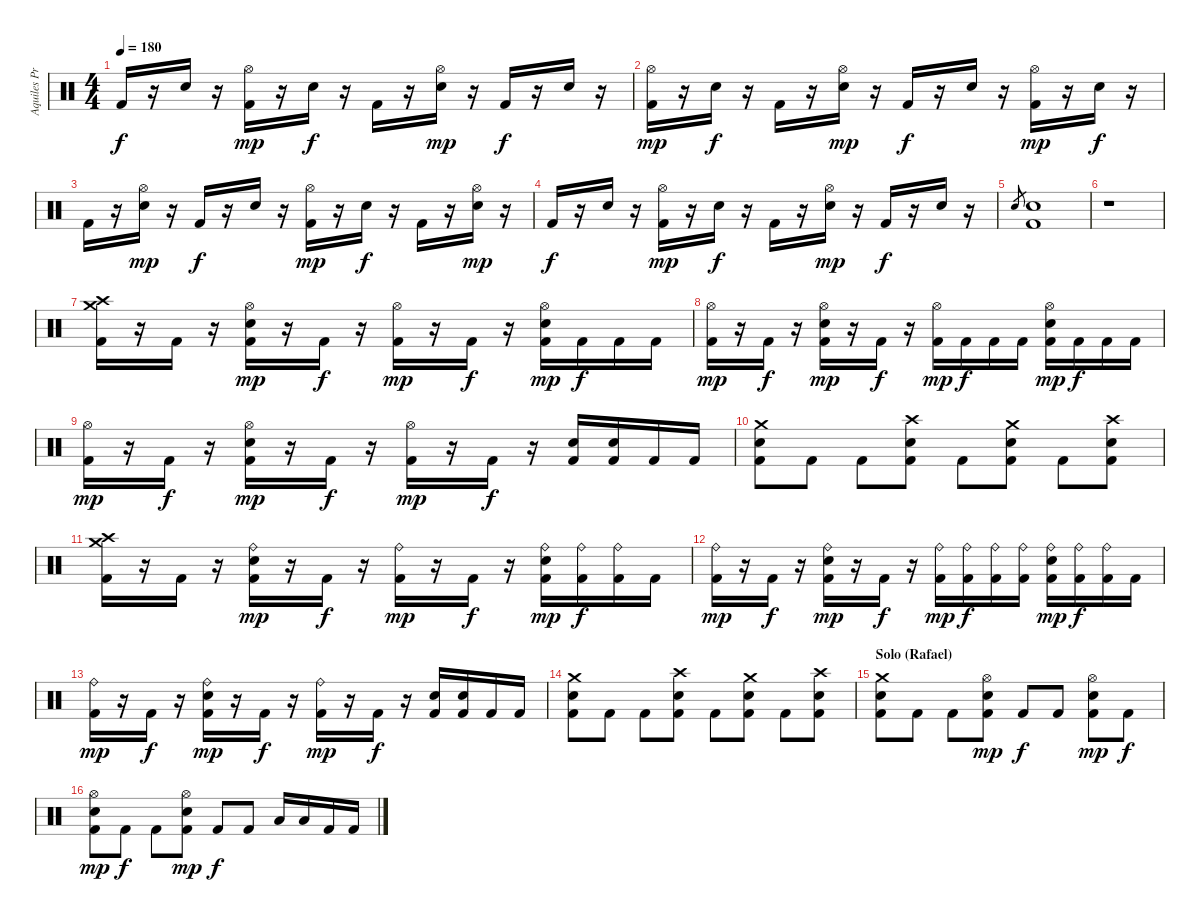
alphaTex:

\track ("Aquiles Priester" "Aquiles Pr") {instrument percussion}
\staff {score}
\articulation defaults
\ts (4 4)
\tempo 180
\clef neutral
\ks c "Kick (hit) 2".16{dy f}
r.16 "Snare (hit) 2".16 r.16 ("Hi-Hat (open)" "Kick (hit) 2").16{dy mp} r.16 "Snare (hit) 2".16{dy f} r.16 "Kick (hit) 2".16 r.16 ("Hi-Hat (open)" "Snare (hit) 2").16{dy mp} r.16 "Kick (hit) 2".16{dy f} r.16 "Snare (hit) 2".16 r.16 |
("Hi-Hat (open)" "Kick (hit) 2").16{dy mp} r.16 "Snare (hit) 2".16{dy f} r.16 "Kick (hit) 2".16 r.16 ("Hi-Hat (open)" "Snare (hit) 2").16{dy mp} r.16 "Kick (hit) 2".16{dy f} r.16 "Snare (hit) 2".16 r.16 ("Hi-Hat (open)" "Kick (hit) 2").16{dy mp} r.16 "Snare (hit) 2".16{dy f} r.16 |
"Kick (hit) 2".16 r.16 ("Hi-Hat (open)" "Snare (hit) 2").16{dy mp} r.16 "Kick (hit) 2".16{dy f} r.16 "Snare (hit) 2".16 r.16 ("Hi-Hat (open)" "Kick (hit) 2").16{dy mp} r.16 "Snare (hit) 2".16{dy f} r.16 "Kick (hit) 2".16 r.16 ("Hi-Hat (open)" "Snare (hit) 2").16{dy mp} r.16 |
"Kick (hit) 2".16{dy f} r.16 "Snare (hit) 2".16 r.16 ("Hi-Hat (open)" "Kick (hit) 2").16{dy mp} r.16 "Snare (hit) 2".16{dy f} r.16 "Kick (hit) 2".16 r.16 ("Hi-Hat (open)" "Snare (hit) 2").16{dy mp} r.16 "Kick (hit) 2".16{dy f} r.16 "Snare (hit) 2".16 r.16 |
"Snare (hit) 2".8{gr} ("Snare (hit) 2" "Kick (hit) 2").1 |
r.1 |
("Crash high (hit)" "Crash medium (hit)" "Kick (hit) 2").16 r.16 "Kick (hit) 2".16 r.16 ("Hi-Hat (open)" "Snare (hit) 2" "Kick (hit) 2").16{dy mp} r.16 "Kick (hit) 2".16{dy f} r.16 ("Hi-Hat (open)" "Kick (hit) 2").16{dy mp} r.16 "Kick (hit) 2".16{dy f} r.16 ("Hi-Hat (open)" "Snare (hit) 2" "Kick (hit) 2").16{dy mp} "Kick (hit) 2".16{dy f} "Kick (hit) 2".16 "Kick (hit) 2".16 |
("Hi-Hat (open)" "Kick (hit) 2").16{dy mp} r.16 "Kick (hit) 2".16{dy f} r.16 ("Hi-Hat (open)" "Snare (hit) 2" "Kick (hit) 2").16{dy mp} r.16 "Kick (hit) 2".16{dy f} r.16 ("Hi-Hat (open)" "Kick (hit) 2").16{dy mp} "Kick (hit) 2".16{dy f} "Kick (hit) 2".16 "Kick (hit) 2".16 ("Hi-Hat (open)" "Snare (hit) 2" "Kick (hit) 2").16{dy mp} "Kick (hit) 2".16{dy f} "Kick (hit) 2".16 "Kick (hit) 2".16 |
("Hi-Hat (open)" "Kick (hit) 2").16{dy mp} r.16 "Kick (hit) 2".16{dy f} r.16 ("Hi-Hat (open)" "Snare (hit) 2" "Kick (hit) 2").16{dy mp} r.16 "Kick (hit) 2".16{dy f} r.16 ("Hi-Hat (open)" "Kick (hit) 2").16{dy mp} r.16 "Kick (hit) 2".16{dy f} r.16 ("Snare (hit) 2" "Kick (hit) 2").16 ("Snare (hit) 2" "Kick (hit) 2").16 "Kick (hit) 2".16 "Kick (hit) 2".16 |
("Crash medium (hit)" "Snare (hit) 2" "Kick (hit) 2").8 "Kick (hit) 2".8 "Kick (hit) 2".8 ("Crash high (hit)" "Snare (hit) 2" "Kick (hit) 2").8 "Kick (hit) 2".8 ("Crash medium (hit)" "Snare (hit) 2" "Kick (hit) 2").8 "Kick (hit) 2".8 ("Crash high (hit)" "Snare (hit) 2" "Kick (hit) 2").8 |
("Crash high (hit)" "Crash medium (hit)" "Kick (hit) 2").16 r.16 "Kick (hit) 2".16 r.16 ("Ride (bell)" "Snare (hit) 2" "Kick (hit) 2").16{dy mp} r.16 "Kick (hit) 2".16{dy f} r.16 ("Ride (bell)" "Kick (hit) 2").16{dy mp} r.16 "Kick (hit) 2".16{dy f} r.16 ("Ride (bell)" "Snare (hit) 2" "Kick (hit) 2").16{dy mp} ("Ride (bell)" "Kick (hit) 2").16{dy f} ("Ride (bell)" "Kick (hit) 2").16 "Kick (hit) 2".16 |
("Ride (bell)" "Kick (hit) 2").16{dy mp} r.16 "Kick (hit) 2".16{dy f} r.16 ("Ride (bell)" "Snare (hit) 2" "Kick (hit) 2").16{dy mp} r.16 "Kick (hit) 2".16{dy f} r.16 ("Ride (bell)" "Kick (hit) 2").16{dy mp} ("Ride (bell)" "Kick (hit) 2").16{dy f} ("Ride (bell)" "Kick (hit) 2").16 ("Ride (bell)" "Kick (hit) 2").16 ("Ride (bell)" "Snare (hit) 2" "Kick (hit) 2").16{dy mp} ("Ride (bell)" "Kick (hit) 2").16{dy f} ("Ride (bell)" "Kick (hit) 2").16 "Kick (hit) 2".16 |
("Ride (bell)" "Kick (hit) 2").16{dy mp} r.16 "Kick (hit) 2".16{dy f} r.16 ("Ride (bell)" "Snare (hit) 2" "Kick (hit) 2").16{dy mp} r.16 "Kick (hit) 2".16{dy f} r.16 ("Ride (bell)" "Kick (hit) 2").16{dy mp} r.16 "Kick (hit) 2".16{dy f} r.16 ("Snare (hit) 2" "Kick (hit) 2").16 ("Snare (hit) 2" "Kick (hit) 2").16 "Kick (hit) 2".16 "Kick (hit) 2".16 |
("Crash medium (hit)" "Snare (hit) 2" "Kick (hit) 2").8 "Kick (hit) 2".8 "Kick (hit) 2".8 ("Crash high (hit)" "Snare (hit) 2" "Kick (hit) 2").8 "Kick (hit) 2".8 ("Crash medium (hit)" "Snare (hit) 2" "Kick (hit) 2").8 "Kick (hit) 2".8 ("Crash high (hit)" "Snare (hit) 2" "Kick (hit) 2").8 |
\section ("" "Solo (Rafael)")
("Crash medium (hit)" "Snare (hit) 2" "Kick (hit) 2").8 "Kick (hit) 2".8 "Kick (hit) 2".8 ("Hi-Hat (open)" "Snare (hit) 2" "Kick (hit) 2").8{dy mp} "Kick (hit) 2".8{dy f} "Kick (hit) 2".8 ("Hi-Hat (open)" "Snare (hit) 2" "Kick (hit) 2").8{dy mp} "Kick (hit) 2".8{dy f} |
("Hi-Hat (open)" "Snare (hit) 2" "Kick (hit) 2").8{dy mp} "Kick (hit) 2".8{dy f} "Kick (hit) 2".8 ("Hi-Hat (open)" "Snare (hit) 2" "Kick (hit) 2").8{dy mp} "Kick (hit) 2".8{dy f} "Kick (hit) 2".8 "Low Tom (hit)".16 "Low Tom (hit)".16 "Kick (hit) 2".16 "Kick (hit) 2".16
